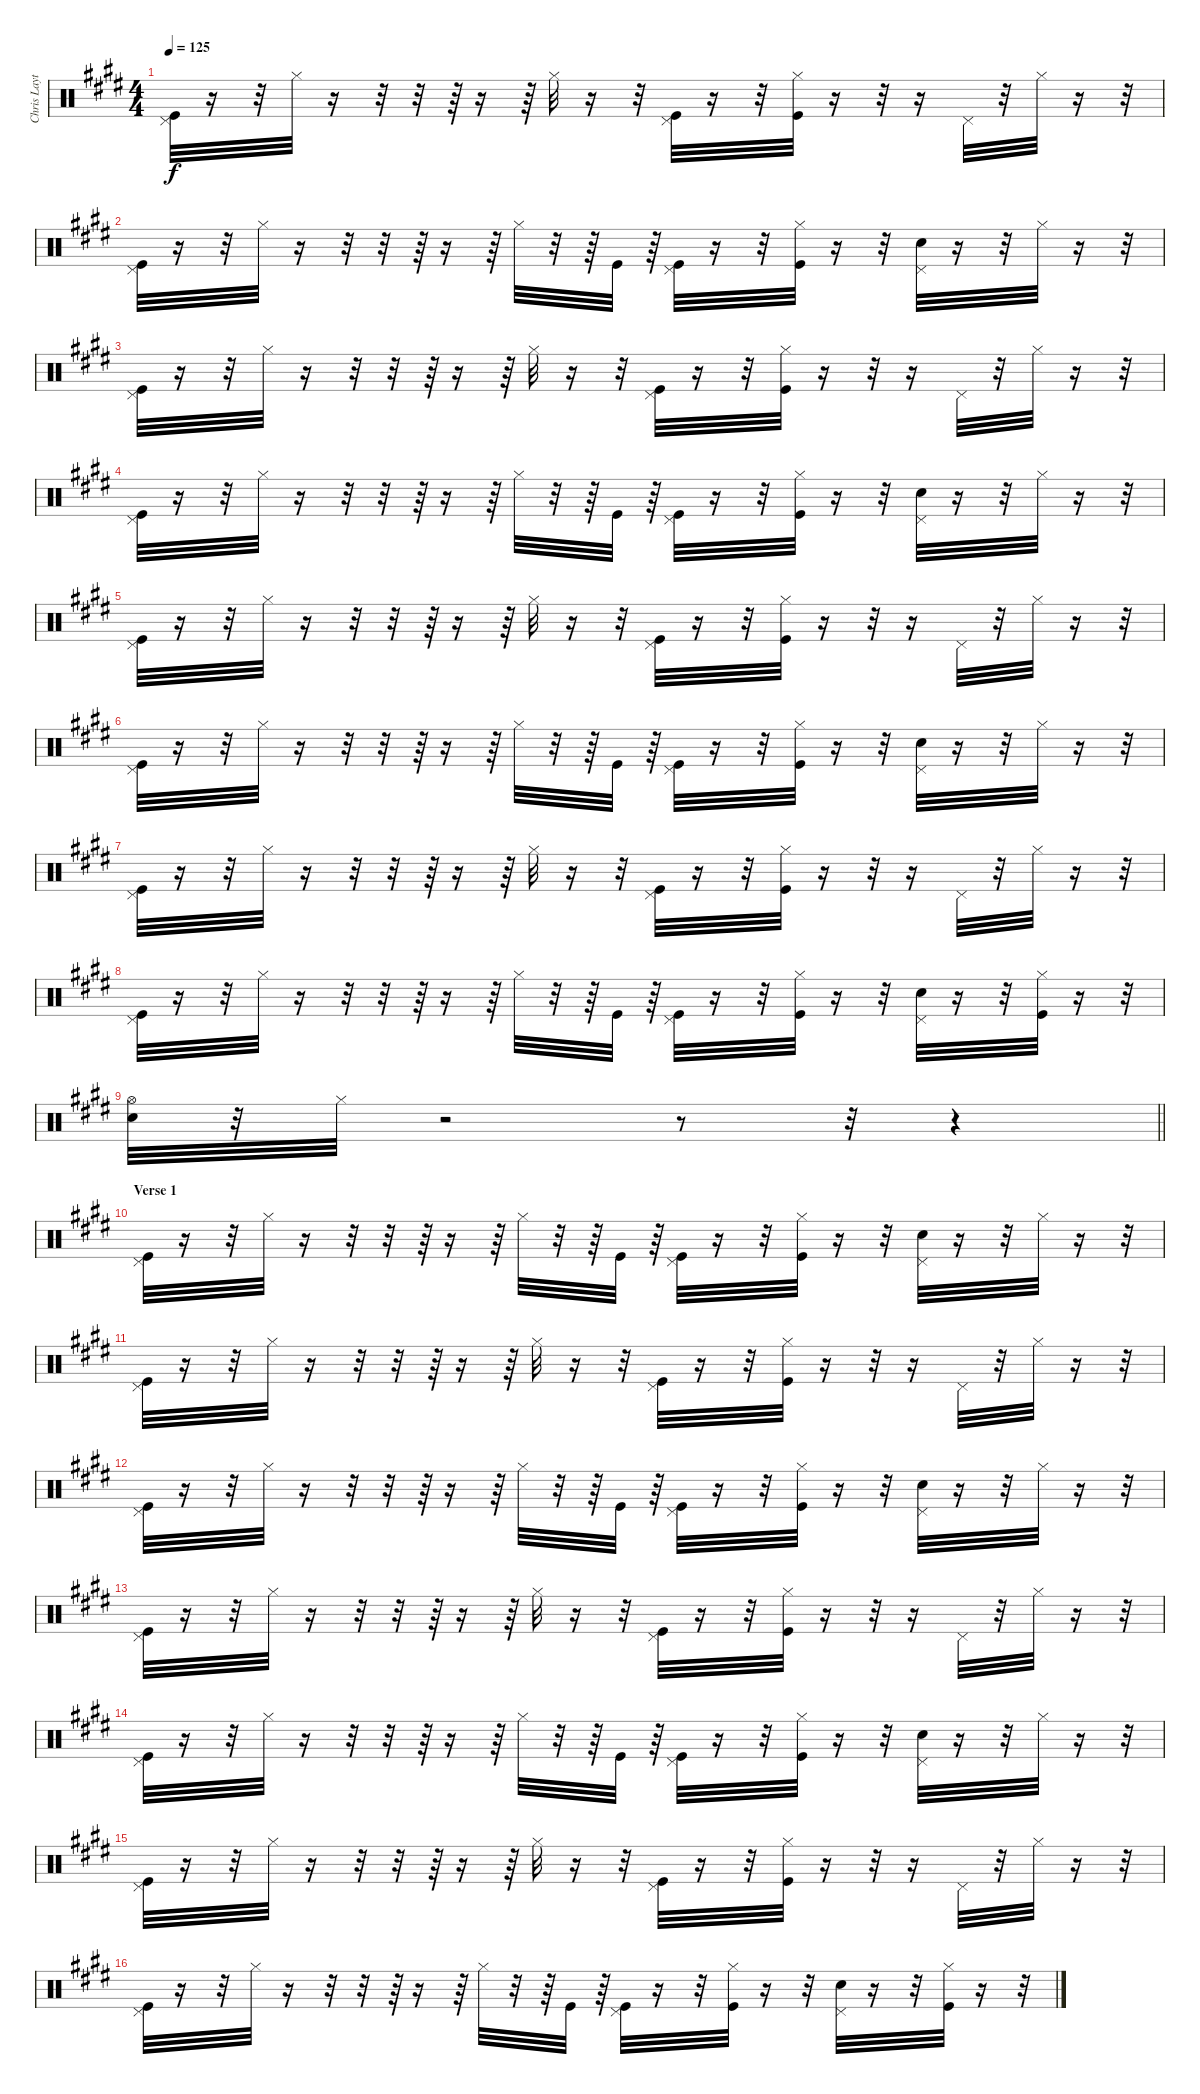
\track ("Chris Layton" "Chris Layt") {instrument percussion}
\staff {score}
\articulation defaults
\ts (4 4)
\tempo 125
\clef neutral
\ks e
("Pedal Hi-Hat (hit)" "Kick (hit)").32{dy f} r.16 r.32 "Hi-Hat (closed)".32 r.16 r.32 r.32 r.64 r.16 r.64 "Hi-Hat (closed)".32 r.16 r.32 ("Kick (hit)" "Pedal Hi-Hat (hit)").32 r.16 r.32 ("Kick (hit)" "Hi-Hat (closed)").32 r.16 r.32 r.16 "Pedal Hi-Hat (hit)".32 r.32 "Hi-Hat (closed)".32 r.16 r.32 |
("Pedal Hi-Hat (hit)" "Kick (hit)").32 r.16 r.32 "Hi-Hat (closed)".32 r.16 r.32 r.32 r.64 r.16 r.64 "Hi-Hat (closed)".32 r.32 r.64 "Kick (hit)".32 r.64 ("Kick (hit)" "Pedal Hi-Hat (hit)").32 r.16 r.32 ("Kick (hit)" "Hi-Hat (closed)").32 r.16 r.32 ("Snare (hit) 2" "Pedal Hi-Hat (hit)").32 r.16 r.32 "Hi-Hat (closed)".32 r.16 r.32 |
("Pedal Hi-Hat (hit)" "Kick (hit)").32 r.16 r.32 "Hi-Hat (closed)".32 r.16 r.32 r.32 r.64 r.16 r.64 "Hi-Hat (closed)".32 r.16 r.32 ("Kick (hit)" "Pedal Hi-Hat (hit)").32 r.16 r.32 ("Kick (hit)" "Hi-Hat (closed)").32 r.16 r.32 r.16 "Pedal Hi-Hat (hit)".32 r.32 "Hi-Hat (closed)".32 r.16 r.32 |
("Pedal Hi-Hat (hit)" "Kick (hit)").32 r.16 r.32 "Hi-Hat (closed)".32 r.16 r.32 r.32 r.64 r.16 r.64 "Hi-Hat (closed)".32 r.32 r.64 "Kick (hit)".32 r.64 ("Kick (hit)" "Pedal Hi-Hat (hit)").32 r.16 r.32 ("Kick (hit)" "Hi-Hat (closed)").32 r.16 r.32 ("Snare (hit) 2" "Pedal Hi-Hat (hit)").32 r.16 r.32 "Hi-Hat (closed)".32 r.16 r.32 |
("Pedal Hi-Hat (hit)" "Kick (hit)").32 r.16 r.32 "Hi-Hat (closed)".32 r.16 r.32 r.32 r.64 r.16 r.64 "Hi-Hat (closed)".32 r.16 r.32 ("Kick (hit)" "Pedal Hi-Hat (hit)").32 r.16 r.32 ("Kick (hit)" "Hi-Hat (closed)").32 r.16 r.32 r.16 "Pedal Hi-Hat (hit)".32 r.32 "Hi-Hat (closed)".32 r.16 r.32 |
("Pedal Hi-Hat (hit)" "Kick (hit)").32 r.16 r.32 "Hi-Hat (closed)".32 r.16 r.32 r.32 r.64 r.16 r.64 "Hi-Hat (closed)".32 r.32 r.64 "Kick (hit)".32 r.64 ("Kick (hit)" "Pedal Hi-Hat (hit)").32 r.16 r.32 ("Kick (hit)" "Hi-Hat (closed)").32 r.16 r.32 ("Snare (hit) 2" "Pedal Hi-Hat (hit)").32 r.16 r.32 "Hi-Hat (closed)".32 r.16 r.32 |
("Pedal Hi-Hat (hit)" "Kick (hit)").32 r.16 r.32 "Hi-Hat (closed)".32 r.16 r.32 r.32 r.64 r.16 r.64 "Hi-Hat (closed)".32 r.16 r.32 ("Kick (hit)" "Pedal Hi-Hat (hit)").32 r.16 r.32 ("Kick (hit)" "Hi-Hat (closed)").32 r.16 r.32 r.16 "Pedal Hi-Hat (hit)".32 r.32 "Hi-Hat (closed)".32 r.16 r.32 |
("Pedal Hi-Hat (hit)" "Kick (hit)").32 r.16 r.32 "Hi-Hat (closed)".32 r.16 r.32 r.32 r.64 r.16 r.64 "Hi-Hat (closed)".32 r.32 r.64 "Kick (hit)".32 r.64 ("Kick (hit)" "Pedal Hi-Hat (hit)").32 r.16 r.32 ("Kick (hit)" "Hi-Hat (closed)").32 r.16 r.32 ("Snare (hit) 2" "Pedal Hi-Hat (hit)").32 r.16 r.32 ("Kick (hit)" "Hi-Hat (closed)").32 r.16 r.32 |
\barLineRight lightlight
("Hi-Hat (open)" "Snare (hit) 2").32 r.32 "Hi-Hat (closed)".32 r.2 r.8 r.32 r.4 |
\section ("" "Verse 1")
("Pedal Hi-Hat (hit)" "Kick (hit)").32 r.16 r.32 "Hi-Hat (closed)".32 r.16 r.32 r.32 r.64 r.16 r.64 "Hi-Hat (closed)".32 r.32 r.64 "Kick (hit)".32 r.64 ("Kick (hit)" "Pedal Hi-Hat (hit)").32 r.16 r.32 ("Kick (hit)" "Hi-Hat (closed)").32 r.16 r.32 ("Snare (hit) 2" "Pedal Hi-Hat (hit)").32 r.16 r.32 "Hi-Hat (closed)".32 r.16 r.32 |
("Pedal Hi-Hat (hit)" "Kick (hit)").32 r.16 r.32 "Hi-Hat (closed)".32 r.16 r.32 r.32 r.64 r.16 r.64 "Hi-Hat (closed)".32 r.16 r.32 ("Kick (hit)" "Pedal Hi-Hat (hit)").32 r.16 r.32 ("Kick (hit)" "Hi-Hat (closed)").32 r.16 r.32 r.16 "Pedal Hi-Hat (hit)".32 r.32 "Hi-Hat (closed)".32 r.16 r.32 |
("Pedal Hi-Hat (hit)" "Kick (hit)").32 r.16 r.32 "Hi-Hat (closed)".32 r.16 r.32 r.32 r.64 r.16 r.64 "Hi-Hat (closed)".32 r.32 r.64 "Kick (hit)".32 r.64 ("Kick (hit)" "Pedal Hi-Hat (hit)").32 r.16 r.32 ("Kick (hit)" "Hi-Hat (closed)").32 r.16 r.32 ("Snare (hit) 2" "Pedal Hi-Hat (hit)").32 r.16 r.32 "Hi-Hat (closed)".32 r.16 r.32 |
("Pedal Hi-Hat (hit)" "Kick (hit)").32 r.16 r.32 "Hi-Hat (closed)".32 r.16 r.32 r.32 r.64 r.16 r.64 "Hi-Hat (closed)".32 r.16 r.32 ("Kick (hit)" "Pedal Hi-Hat (hit)").32 r.16 r.32 ("Kick (hit)" "Hi-Hat (closed)").32 r.16 r.32 r.16 "Pedal Hi-Hat (hit)".32 r.32 "Hi-Hat (closed)".32 r.16 r.32 |
("Pedal Hi-Hat (hit)" "Kick (hit)").32 r.16 r.32 "Hi-Hat (closed)".32 r.16 r.32 r.32 r.64 r.16 r.64 "Hi-Hat (closed)".32 r.32 r.64 "Kick (hit)".32 r.64 ("Kick (hit)" "Pedal Hi-Hat (hit)").32 r.16 r.32 ("Kick (hit)" "Hi-Hat (closed)").32 r.16 r.32 ("Snare (hit) 2" "Pedal Hi-Hat (hit)").32 r.16 r.32 "Hi-Hat (closed)".32 r.16 r.32 |
("Pedal Hi-Hat (hit)" "Kick (hit)").32 r.16 r.32 "Hi-Hat (closed)".32 r.16 r.32 r.32 r.64 r.16 r.64 "Hi-Hat (closed)".32 r.16 r.32 ("Kick (hit)" "Pedal Hi-Hat (hit)").32 r.16 r.32 ("Kick (hit)" "Hi-Hat (closed)").32 r.16 r.32 r.16 "Pedal Hi-Hat (hit)".32 r.32 "Hi-Hat (closed)".32 r.16 r.32 |
("Pedal Hi-Hat (hit)" "Kick (hit)").32 r.16 r.32 "Hi-Hat (closed)".32 r.16 r.32 r.32 r.64 r.16 r.64 "Hi-Hat (closed)".32 r.32 r.64 "Kick (hit)".32 r.64 ("Kick (hit)" "Pedal Hi-Hat (hit)").32 r.16 r.32 ("Kick (hit)" "Hi-Hat (closed)").32 r.16 r.32 ("Snare (hit) 2" "Pedal Hi-Hat (hit)").32 r.16 r.32 ("Kick (hit)" "Hi-Hat (closed)").32 r.16 r.32
